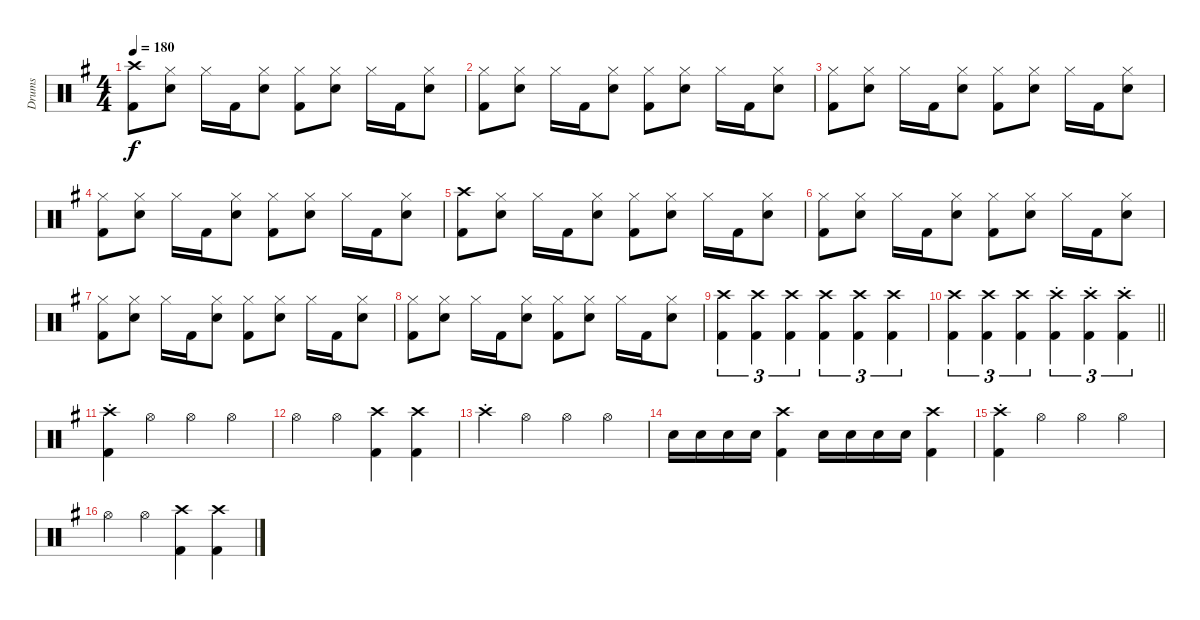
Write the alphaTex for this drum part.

\track ("Drums" "Drums") {instrument percussion}
\staff {score}
\articulation defaults
\ts (4 4)
\tempo 180
\clef neutral
\ks g
("Crash high (hit)" "Kick (hit) 2").8{dy f} ("Hi-Hat (closed)" "Snare (hit) 2").8 "Hi-Hat (closed)".16 "Kick (hit) 2".16 ("Hi-Hat (closed)" "Snare (hit) 2").8 ("Hi-Hat (closed)" "Kick (hit) 2").8 ("Hi-Hat (closed)" "Snare (hit) 2").8 "Hi-Hat (closed)".16 "Kick (hit) 2".16 ("Hi-Hat (closed)" "Snare (hit) 2").8 |
("Hi-Hat (closed)" "Kick (hit) 2").8 ("Hi-Hat (closed)" "Snare (hit) 2").8 "Hi-Hat (closed)".16 "Kick (hit) 2".16 ("Hi-Hat (closed)" "Snare (hit) 2").8 ("Hi-Hat (closed)" "Kick (hit) 2").8 ("Hi-Hat (closed)" "Snare (hit) 2").8 "Hi-Hat (closed)".16 "Kick (hit) 2".16 ("Hi-Hat (closed)" "Snare (hit) 2").8 |
("Hi-Hat (closed)" "Kick (hit) 2").8 ("Hi-Hat (closed)" "Snare (hit) 2").8 "Hi-Hat (closed)".16 "Kick (hit) 2".16 ("Hi-Hat (closed)" "Snare (hit) 2").8 ("Hi-Hat (closed)" "Kick (hit) 2").8 ("Hi-Hat (closed)" "Snare (hit) 2").8 "Hi-Hat (closed)".16 "Kick (hit) 2".16 ("Hi-Hat (closed)" "Snare (hit) 2").8 |
("Hi-Hat (closed)" "Kick (hit) 2").8 ("Hi-Hat (closed)" "Snare (hit) 2").8 "Hi-Hat (closed)".16 "Kick (hit) 2".16 ("Hi-Hat (closed)" "Snare (hit) 2").8 ("Hi-Hat (closed)" "Kick (hit) 2").8 ("Hi-Hat (closed)" "Snare (hit) 2").8 "Hi-Hat (closed)".16 "Kick (hit) 2".16 ("Hi-Hat (closed)" "Snare (hit) 2").8 |
("Crash high (hit)" "Kick (hit) 2").8 ("Hi-Hat (closed)" "Snare (hit) 2").8 "Hi-Hat (closed)".16 "Kick (hit) 2".16 ("Hi-Hat (closed)" "Snare (hit) 2").8 ("Hi-Hat (closed)" "Kick (hit) 2").8 ("Hi-Hat (closed)" "Snare (hit) 2").8 "Hi-Hat (closed)".16 "Kick (hit) 2".16 ("Hi-Hat (closed)" "Snare (hit) 2").8 |
("Hi-Hat (closed)" "Kick (hit) 2").8 ("Hi-Hat (closed)" "Snare (hit) 2").8 "Hi-Hat (closed)".16 "Kick (hit) 2".16 ("Hi-Hat (closed)" "Snare (hit) 2").8 ("Hi-Hat (closed)" "Kick (hit) 2").8 ("Hi-Hat (closed)" "Snare (hit) 2").8 "Hi-Hat (closed)".16 "Kick (hit) 2".16 ("Hi-Hat (closed)" "Snare (hit) 2").8 |
("Hi-Hat (closed)" "Kick (hit) 2").8 ("Hi-Hat (closed)" "Snare (hit) 2").8 "Hi-Hat (closed)".16 "Kick (hit) 2".16 ("Hi-Hat (closed)" "Snare (hit) 2").8 ("Hi-Hat (closed)" "Kick (hit) 2").8 ("Hi-Hat (closed)" "Snare (hit) 2").8 "Hi-Hat (closed)".16 "Kick (hit) 2".16 ("Hi-Hat (closed)" "Snare (hit) 2").8 |
("Hi-Hat (closed)" "Kick (hit) 2").8 ("Hi-Hat (closed)" "Snare (hit) 2").8 "Hi-Hat (closed)".16 "Kick (hit) 2".16 ("Hi-Hat (closed)" "Snare (hit) 2").8 ("Hi-Hat (closed)" "Kick (hit) 2").8 ("Hi-Hat (closed)" "Snare (hit) 2").8 "Hi-Hat (closed)".16 "Kick (hit) 2".16 ("Hi-Hat (closed)" "Snare (hit) 2").8 |
("Crash high (hit)" "Kick (hit) 2").4{tu (3 2)} ("Crash high (hit)" "Kick (hit) 2").4{tu (3 2)} ("Crash high (hit)" "Kick (hit) 2").4{tu (3 2)} ("Crash high (hit)" "Kick (hit) 2").4{tu (3 2)} ("Crash high (hit)" "Kick (hit) 2").4{tu (3 2)} ("Crash high (hit)" "Kick (hit) 2").4{tu (3 2)} |
\barLineRight lightlight
("Crash high (hit)" "Kick (hit) 2").4{tu (3 2)} ("Crash high (hit)" "Kick (hit) 2").4{tu (3 2)} ("Crash high (hit)" "Kick (hit) 2").4{tu (3 2)} ("Crash high (hit)"{st} "Kick (hit) 2").4{tu (3 2)} ("Crash high (hit)"{st} "Kick (hit) 2").4{tu (3 2)} ("Crash high (hit)"{st} "Kick (hit) 2").4{tu (3 2)} |
("Crash high (hit)"{st} "Kick (hit) 2").4 "Hi-Hat (open)".4 "Hi-Hat (open)".4 "Hi-Hat (open)".4 |
"Hi-Hat (open)".4 "Hi-Hat (open)".4 ("Crash high (hit)" "Kick (hit) 2").4 ("Crash high (hit)" "Kick (hit) 2").4 |
"Crash high (hit)"{st}.4 "Hi-Hat (open)".4 "Hi-Hat (open)".4 "Hi-Hat (open)".4 |
"Snare (hit) 2".16 "Snare (hit) 2".16 "Snare (hit) 2".16 "Snare (hit) 2".16 ("Crash high (hit)" "Kick (hit) 2").4 "Snare (hit) 2".16 "Snare (hit) 2".16 "Snare (hit) 2".16 "Snare (hit) 2".16 ("Crash high (hit)" "Kick (hit) 2").4 |
("Crash high (hit)"{st} "Kick (hit) 2").4 "Hi-Hat (open)".4 "Hi-Hat (open)".4 "Hi-Hat (open)".4 |
"Hi-Hat (open)".4 "Hi-Hat (open)".4 ("Crash high (hit)" "Kick (hit) 2").4 ("Crash high (hit)" "Kick (hit) 2").4
